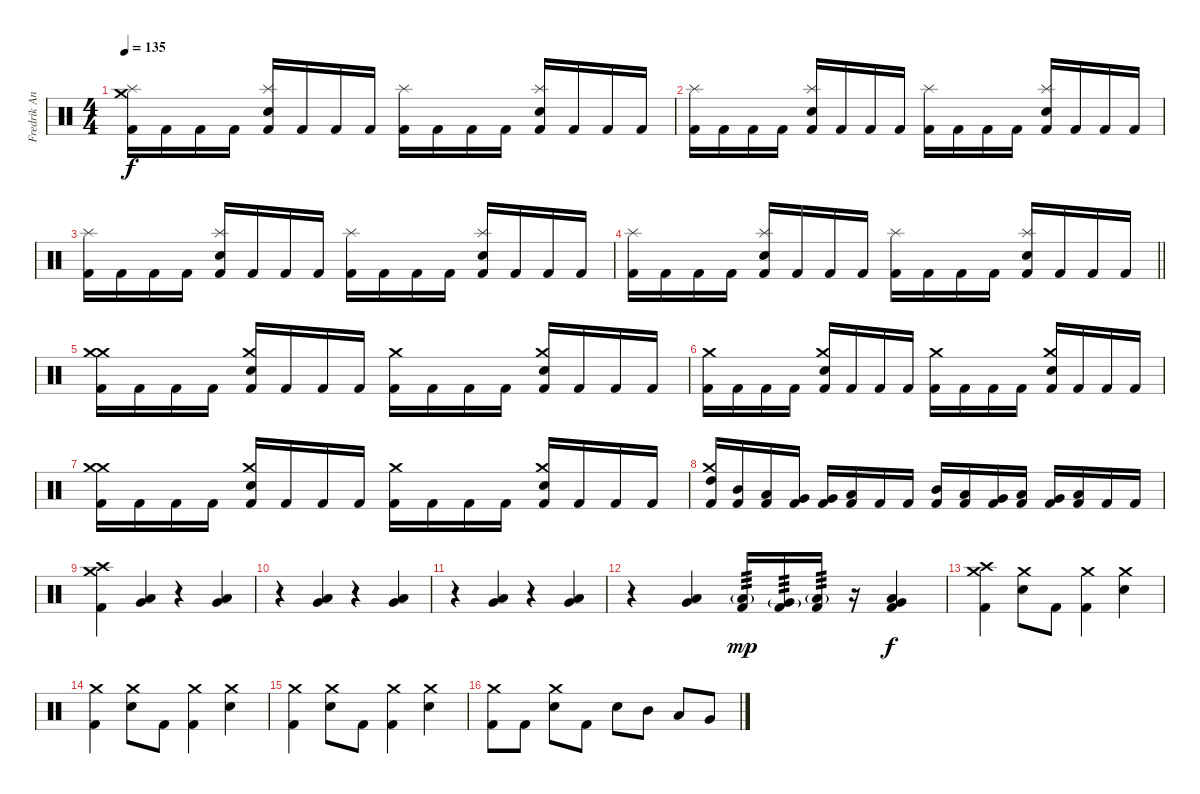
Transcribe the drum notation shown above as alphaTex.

\track ("Fredrik Andersson" "Fredrik An") {instrument percussion}
\staff {score}
\articulation defaults
\ts (4 4)
\tempo 135
\clef neutral
\ks c
("Kick (hit) 2" "Splash (hit)" "Crash medium (hit)").16{dy f} "Kick (hit) 2".16 "Kick (hit) 2".16 "Kick (hit) 2".16 ("Kick (hit) 2" "Snare (hit) 2" "Splash (hit)").16 "Kick (hit) 2".16 "Kick (hit) 2".16 "Kick (hit) 2".16 ("Kick (hit) 2" "Splash (hit)").16 "Kick (hit) 2".16 "Kick (hit) 2".16 "Kick (hit) 2".16 ("Kick (hit) 2" "Snare (hit) 2" "Splash (hit)").16 "Kick (hit) 2".16 "Kick (hit) 2".16 "Kick (hit) 2".16 |
("Kick (hit) 2" "Splash (hit)").16 "Kick (hit) 2".16 "Kick (hit) 2".16 "Kick (hit) 2".16 ("Kick (hit) 2" "Snare (hit) 2" "Splash (hit)").16 "Kick (hit) 2".16 "Kick (hit) 2".16 "Kick (hit) 2".16 ("Kick (hit) 2" "Splash (hit)").16 "Kick (hit) 2".16 "Kick (hit) 2".16 "Kick (hit) 2".16 ("Kick (hit) 2" "Snare (hit) 2" "Splash (hit)").16 "Kick (hit) 2".16 "Kick (hit) 2".16 "Kick (hit) 2".16 |
("Kick (hit) 2" "Splash (hit)").16 "Kick (hit) 2".16 "Kick (hit) 2".16 "Kick (hit) 2".16 ("Kick (hit) 2" "Snare (hit) 2" "Splash (hit)").16 "Kick (hit) 2".16 "Kick (hit) 2".16 "Kick (hit) 2".16 ("Kick (hit) 2" "Splash (hit)").16 "Kick (hit) 2".16 "Kick (hit) 2".16 "Kick (hit) 2".16 ("Kick (hit) 2" "Snare (hit) 2" "Splash (hit)").16 "Kick (hit) 2".16 "Kick (hit) 2".16 "Kick (hit) 2".16 |
\barLineRight lightlight
("Kick (hit) 2" "Splash (hit)").16 "Kick (hit) 2".16 "Kick (hit) 2".16 "Kick (hit) 2".16 ("Kick (hit) 2" "Snare (hit) 2" "Splash (hit)").16 "Kick (hit) 2".16 "Kick (hit) 2".16 "Kick (hit) 2".16 ("Kick (hit) 2" "Splash (hit)").16 "Kick (hit) 2".16 "Kick (hit) 2".16 "Kick (hit) 2".16 ("Kick (hit) 2" "Snare (hit) 2" "Splash (hit)").16 "Kick (hit) 2".16 "Kick (hit) 2".16 "Kick (hit) 2".16 |
("Kick (hit) 2" "Crash medium (hit)" "Crash medium (hit)").16 "Kick (hit) 2".16 "Kick (hit) 2".16 "Kick (hit) 2".16 ("Kick (hit) 2" "Snare (hit) 2" "Crash medium (hit)").16 "Kick (hit) 2".16 "Kick (hit) 2".16 "Kick (hit) 2".16 ("Kick (hit) 2" "Crash medium (hit)").16 "Kick (hit) 2".16 "Kick (hit) 2".16 "Kick (hit) 2".16 ("Kick (hit) 2" "Snare (hit) 2" "Crash medium (hit)").16 "Kick (hit) 2".16 "Kick (hit) 2".16 "Kick (hit) 2".16 |
("Kick (hit) 2" "Crash medium (hit)").16 "Kick (hit) 2".16 "Kick (hit) 2".16 "Kick (hit) 2".16 ("Kick (hit) 2" "Snare (hit) 2" "Crash medium (hit)").16 "Kick (hit) 2".16 "Kick (hit) 2".16 "Kick (hit) 2".16 ("Kick (hit) 2" "Crash medium (hit)").16 "Kick (hit) 2".16 "Kick (hit) 2".16 "Kick (hit) 2".16 ("Kick (hit) 2" "Snare (hit) 2" "Crash medium (hit)").16 "Kick (hit) 2".16 "Kick (hit) 2".16 "Kick (hit) 2".16 |
("Kick (hit) 2" "Crash medium (hit)" "Crash medium (hit)").16 "Kick (hit) 2".16 "Kick (hit) 2".16 "Kick (hit) 2".16 ("Kick (hit) 2" "Snare (hit) 2" "Crash medium (hit)").16 "Kick (hit) 2".16 "Kick (hit) 2".16 "Kick (hit) 2".16 ("Kick (hit) 2" "Crash medium (hit)").16 "Kick (hit) 2".16 "Kick (hit) 2".16 "Kick (hit) 2".16 ("Kick (hit) 2" "Snare (hit) 2" "Crash medium (hit)").16 "Kick (hit) 2".16 "Kick (hit) 2".16 "Kick (hit) 2".16 |
("Kick (hit) 2" "High Tom (hit)" "Crash medium (hit)").16 ("Kick (hit) 2" "Mid Tom (hit)").16 ("Kick (hit) 2" "Low Tom (hit)").16 ("Kick (hit) 2" "Very Low Tom (hit)").16 ("Kick (hit) 2" "Very Low Tom (hit)").16 ("Kick (hit) 2" "Low Floor Tom (hit)").16 "Kick (hit) 2".16 "Kick (hit) 2".16 ("Kick (hit) 2" "Mid Tom (hit)").16 ("Kick (hit) 2" "Low Tom (hit)").16 ("Kick (hit) 2" "Very Low Tom (hit)").16 ("Kick (hit) 2" "Low Floor Tom (hit)").16 ("Kick (hit) 2" "Very Low Tom (hit)").16 ("Kick (hit) 2" "Low Floor Tom (hit)").16 "Kick (hit) 2".16 "Kick (hit) 2".16 |
("Kick (hit) 2" "Crash medium (hit)" "Crash high (hit)").4 ("Low Tom (hit)" "Very Low Tom (hit)").4 r.4 ("Low Tom (hit)" "Very Low Tom (hit)").4 |
r.4 ("Low Tom (hit)" "Very Low Tom (hit)").4 r.4 ("Low Tom (hit)" "Very Low Tom (hit)").4 |
r.4 ("Low Tom (hit)" "Very Low Tom (hit)").4 r.4 ("Low Tom (hit)" "Very Low Tom (hit)").4 |
r.4 ("Low Tom (hit)" "Very Low Tom (hit)").4 ("Kick (hit) 2" "Low Tom (hit)"{g}).16{tp 3 dy mp} ("Kick (hit) 2" "Very Low Tom (hit)"{g}).16{tp 3} ("Kick (hit) 2" "Low Floor Tom (hit)"{g}).16{tp 3} r.16 ("Kick (hit) 2" "Low Tom (hit)" "Very Low Tom (hit)").4{dy f} |
("Kick (hit) 2" "Crash medium (hit)" "Crash high (hit)").4 ("Snare (hit) 2" "Crash medium (hit)").8 "Kick (hit) 2".8 ("Kick (hit) 2" "Crash medium (hit)").4 ("Snare (hit) 2" "Crash medium (hit)").4 |
("Kick (hit) 2" "Crash medium (hit)").4 ("Snare (hit) 2" "Crash medium (hit)").8 "Kick (hit) 2".8 ("Kick (hit) 2" "Crash medium (hit)").4 ("Snare (hit) 2" "Crash medium (hit)").4 |
("Kick (hit) 2" "Crash medium (hit)").4 ("Snare (hit) 2" "Crash medium (hit)").8 "Kick (hit) 2".8 ("Kick (hit) 2" "Crash medium (hit)").4 ("Snare (hit) 2" "Crash medium (hit)").4 |
("Kick (hit) 2" "Crash medium (hit)").8 "Kick (hit) 2".8 ("Snare (hit) 2" "Crash medium (hit)").8 "Kick (hit) 2".8 "Snare (hit) 2".8 "Mid Tom (hit)".8 "Low Tom (hit)".8 "Very Low Tom (hit)".8
